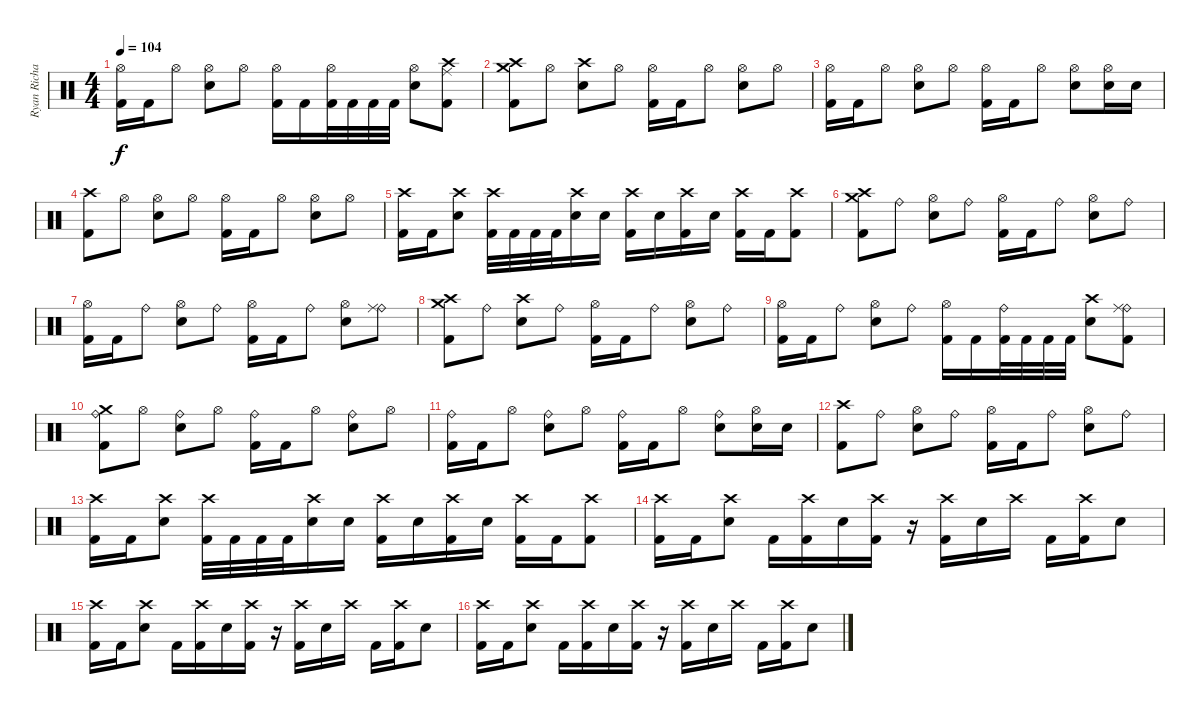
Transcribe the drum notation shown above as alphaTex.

\track ("Ryan Richards" "Ryan Richa") {instrument percussion}
\staff {score}
\articulation defaults
\ts (4 4)
\tempo 104
\clef neutral
\ks c
("Hi-Hat (open)" "Kick (hit) 2").16{dy f} "Kick (hit) 2".16 "Hi-Hat (open)".8 ("Hi-Hat (open)" "Snare (hit) 2").8 "Hi-Hat (open)".8 ("Hi-Hat (open)" "Kick (hit) 2").16 "Kick (hit) 2".16 ("Hi-Hat (open)" "Kick (hit) 2").32 "Kick (hit) 2".32 "Kick (hit) 2".32 "Kick (hit) 2".32 ("Hi-Hat (open)" "Snare (hit) 2").8 ("Crash high (hit)" "Ride (middle)" "Kick (hit) 2").8 |
("Crash high (hit)" "Crash medium (hit)" "Kick (hit) 2").8 "Hi-Hat (open)".8 ("Crash high (hit)" "Snare (hit) 2").8 "Hi-Hat (open)".8 ("Hi-Hat (open)" "Kick (hit) 2").16 "Kick (hit) 2".16 "Hi-Hat (open)".8 ("Hi-Hat (open)" "Snare (hit) 2").8 "Hi-Hat (open)".8 |
("Hi-Hat (open)" "Kick (hit) 2").16 "Kick (hit) 2".16 "Hi-Hat (open)".8 ("Hi-Hat (open)" "Snare (hit) 2").8 "Hi-Hat (open)".8 ("Hi-Hat (open)" "Kick (hit) 2").16 "Kick (hit) 2".16 "Hi-Hat (open)".8 ("Hi-Hat (open)" "Snare (hit) 2").8 ("Hi-Hat (open)" "Snare (hit) 2").16 "Snare (hit) 2".16 |
("Crash high (hit)" "Kick (hit) 2").8 "Hi-Hat (open)".8 ("Hi-Hat (open)" "Snare (hit) 2").8 "Hi-Hat (open)".8 ("Hi-Hat (open)" "Kick (hit) 2").16 "Kick (hit) 2".16 "Hi-Hat (open)".8 ("Hi-Hat (open)" "Snare (hit) 2").8 "Hi-Hat (open)".8 |
("Crash high (hit)" "Kick (hit) 2").16 "Kick (hit) 2".16 ("Crash high (hit)" "Snare (hit) 2").8 ("Crash high (hit)" "Kick (hit) 2").32 "Kick (hit) 2".32 "Kick (hit) 2".32 "Kick (hit) 2".32 ("Crash high (hit)" "Snare (hit) 2").16 "Snare (hit) 2".16 ("Crash high (hit)" "Kick (hit) 2").16 "Snare (hit) 2".16 ("Crash high (hit)" "Kick (hit) 2").16 "Snare (hit) 2".16 ("Crash high (hit)" "Kick (hit) 2").16 "Kick (hit) 2".16 ("Crash high (hit)" "Kick (hit) 2").8 |
("Crash high (hit)" "Crash medium (hit)" "Kick (hit) 2").8 "Ride (bell)".8 ("Hi-Hat (open)" "Snare (hit) 2").8 "Ride (bell)".8 ("Hi-Hat (open)" "Kick (hit) 2").16 "Kick (hit) 2".16 "Ride (bell)".8 ("Hi-Hat (open)" "Snare (hit) 2").8 "Ride (bell)".8 |
("Hi-Hat (open)" "Kick (hit) 2").16 "Kick (hit) 2".16 "Ride (bell)".8 ("Hi-Hat (open)" "Snare (hit) 2").8 "Ride (bell)".8 ("Hi-Hat (open)" "Kick (hit) 2").16 "Kick (hit) 2".16 "Ride (bell)".8 ("Hi-Hat (open)" "Snare (hit) 2").8 ("Ride (bell)" "Ride (middle)").8 |
("Crash high (hit)" "Crash medium (hit)" "Kick (hit) 2").8 "Ride (bell)".8 ("Crash high (hit)" "Snare (hit) 2").8 "Ride (bell)".8 ("Hi-Hat (open)" "Kick (hit) 2").16 "Kick (hit) 2".16 "Ride (bell)".8 ("Hi-Hat (open)" "Snare (hit) 2").8 "Ride (bell)".8 |
("Hi-Hat (open)" "Kick (hit) 2").16 "Kick (hit) 2".16 "Ride (bell)".8 ("Hi-Hat (open)" "Snare (hit) 2").8 "Ride (bell)".8 ("Hi-Hat (open)" "Kick (hit) 2").16 "Kick (hit) 2".16 ("Ride (bell)" "Kick (hit) 2").32 "Kick (hit) 2".32 "Kick (hit) 2".32 "Kick (hit) 2".32 ("Crash high (hit)" "Snare (hit) 2").8 ("Ride (bell)" "Ride (middle)" "Kick (hit) 2").8 |
("Ride (bell)" "Crash medium (hit)" "Kick (hit) 2").8 "Hi-Hat (open)".8 ("Ride (bell)" "Snare (hit) 2").8 "Hi-Hat (open)".8 ("Ride (bell)" "Kick (hit) 2").16 "Kick (hit) 2".16 "Hi-Hat (open)".8 ("Ride (bell)" "Snare (hit) 2").8 "Hi-Hat (open)".8 |
("Ride (bell)" "Kick (hit) 2").16 "Kick (hit) 2".16 "Hi-Hat (open)".8 ("Ride (bell)" "Snare (hit) 2").8 "Hi-Hat (open)".8 ("Ride (bell)" "Kick (hit) 2").16 "Kick (hit) 2".16 "Hi-Hat (open)".8 ("Ride (bell)" "Snare (hit) 2").8 ("Hi-Hat (open)" "Snare (hit) 2").16 "Snare (hit) 2".16 |
("Crash high (hit)" "Kick (hit) 2").8 "Ride (bell)".8 ("Hi-Hat (open)" "Snare (hit) 2").8 "Ride (bell)".8 ("Hi-Hat (open)" "Kick (hit) 2").16 "Kick (hit) 2".16 "Ride (bell)".8 ("Hi-Hat (open)" "Snare (hit) 2").8 "Ride (bell)".8 |
("Crash high (hit)" "Kick (hit) 2").16 "Kick (hit) 2".16 ("Crash high (hit)" "Snare (hit) 2").8 ("Crash high (hit)" "Kick (hit) 2").32 "Kick (hit) 2".32 "Kick (hit) 2".32 "Kick (hit) 2".32 ("Crash high (hit)" "Snare (hit) 2").16 "Snare (hit) 2".16 ("Crash high (hit)" "Kick (hit) 2").16 "Snare (hit) 2".16 ("Crash high (hit)" "Kick (hit) 2").16 "Snare (hit) 2".16 ("Crash high (hit)" "Kick (hit) 2").16 "Kick (hit) 2".16 ("Crash high (hit)" "Kick (hit) 2").8 |
("Crash high (hit)" "Kick (hit) 2").16 "Kick (hit) 2".16 ("Crash high (hit)" "Snare (hit) 2").8 "Kick (hit) 2".16 ("Crash high (hit)" "Kick (hit) 2").16 "Snare (hit) 2".16 ("Crash high (hit)" "Kick (hit) 2").16 r.16 ("Crash high (hit)" "Kick (hit) 2").16 "Snare (hit) 2".16 "Crash high (hit)".16 "Kick (hit) 2".16 ("Crash high (hit)" "Kick (hit) 2").16 "Snare (hit) 2".8 |
("Crash high (hit)" "Kick (hit) 2").16 "Kick (hit) 2".16 ("Crash high (hit)" "Snare (hit) 2").8 "Kick (hit) 2".16 ("Crash high (hit)" "Kick (hit) 2").16 "Snare (hit) 2".16 ("Crash high (hit)" "Kick (hit) 2").16 r.16 ("Crash high (hit)" "Kick (hit) 2").16 "Snare (hit) 2".16 "Crash high (hit)".16 "Kick (hit) 2".16 ("Crash high (hit)" "Kick (hit) 2").16 "Snare (hit) 2".8 |
("Crash high (hit)" "Kick (hit) 2").16 "Kick (hit) 2".16 ("Crash high (hit)" "Snare (hit) 2").8 "Kick (hit) 2".16 ("Crash high (hit)" "Kick (hit) 2").16 "Snare (hit) 2".16 ("Crash high (hit)" "Kick (hit) 2").16 r.16 ("Crash high (hit)" "Kick (hit) 2").16 "Snare (hit) 2".16 "Crash high (hit)".16 "Kick (hit) 2".16 ("Crash high (hit)" "Kick (hit) 2").16 "Snare (hit) 2".8
